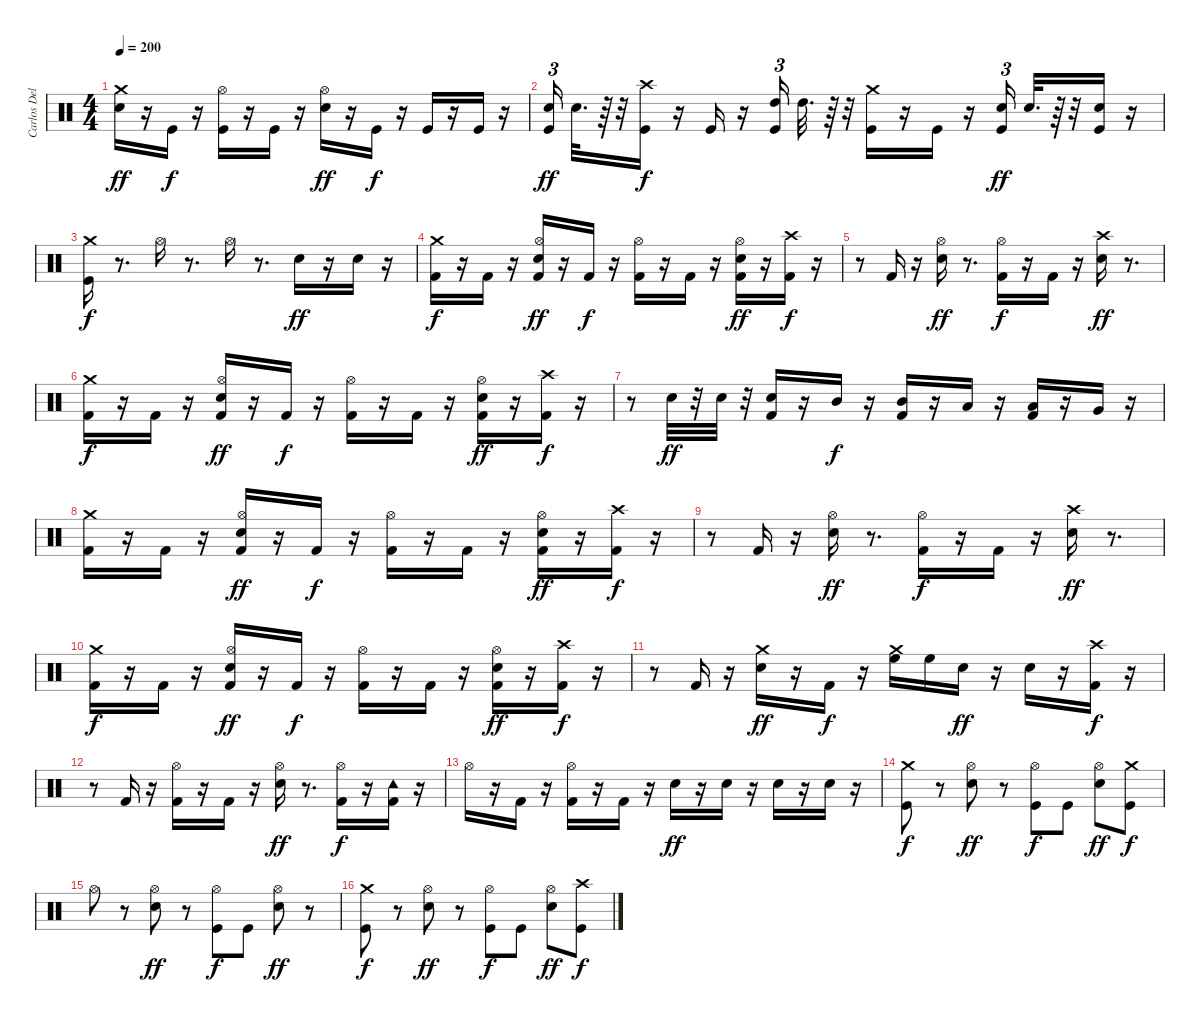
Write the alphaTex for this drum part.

\track ("Carlos Delgado" "Carlos Del") {instrument percussion}
\staff {score}
\articulation defaults
\ts (4 4)
\tempo 200
\clef neutral
\ks c
("Electric Snare (hit)" "Crash medium (hit)").16{dy ff} r.16 "Kick (hit)".16{dy f} r.16 ("Kick (hit)" "Hi-Hat (open)").16 r.16 "Kick (hit)".16 r.16 ("Hi-Hat (open)" "Electric Snare (hit)").16{dy ff} r.16 "Kick (hit)".16{dy f} r.16 "Kick (hit)".16 r.16 "Kick (hit)".16 r.16 |
("Electric Snare (hit)" "Kick (hit)").16{tu (3 2) dy ff} "Electric Snare (hit)".32{d} r.64 r.32 ("Kick (hit)" "Crash high (hit)").16{dy f} r.16 "Kick (hit)".16 r.16 ("Kick (hit)" "High Tom (hit)").16{tu (3 2)} "High Tom (hit)".32{d} r.64 r.32 ("Crash medium (hit)" "Kick (hit)").16 r.16 "Kick (hit)".16 r.16 ("Electric Snare (hit)" "Kick (hit)").16{tu (3 2) dy ff} "Electric Snare (hit)".32{d} r.64 r.32 ("Kick (hit)" "Electric Snare (hit)").16 r.16 |
("Kick (hit)" "Crash medium (hit)").16{dy f} r.8{d} "Hi-Hat (open)".16 r.8{d} "Hi-Hat (open)".16 r.8{d} "Electric Snare (hit)".16{dy ff} r.16 "Electric Snare (hit)".16 r.16 |
("Crash medium (hit)" "Kick (hit) 2").16{dy f} r.16 "Kick (hit) 2".16 r.16 ("Electric Snare (hit)" "Kick (hit) 2" "Hi-Hat (open)").16{dy ff} r.16 "Kick (hit) 2".16{dy f} r.16 ("Kick (hit) 2" "Hi-Hat (open)").16 r.16 "Kick (hit) 2".16 r.16 ("Kick (hit) 2" "Hi-Hat (open)" "Electric Snare (hit)").16{dy ff} r.16 ("Crash high (hit)" "Kick (hit) 2").16{dy f} r.16 |
r.8 "Kick (hit) 2".16 r.16 ("Electric Snare (hit)" "Hi-Hat (open)").16{dy ff} r.8{d} ("Kick (hit) 2" "Hi-Hat (open)").16{dy f} r.16 "Kick (hit) 2".16 r.16 ("Electric Snare (hit)" "Crash high (hit)").16{dy ff} r.8{d} |
("Kick (hit) 2" "Crash medium (hit)").16{dy f} r.16 "Kick (hit) 2".16 r.16 ("Kick (hit) 2" "Hi-Hat (open)" "Electric Snare (hit)").16{dy ff} r.16 "Kick (hit) 2".16{dy f} r.16 ("Kick (hit) 2" "Hi-Hat (open)").16 r.16 "Kick (hit) 2".16 r.16 ("Hi-Hat (open)" "Electric Snare (hit)" "Kick (hit) 2").16{dy ff} r.16 ("Kick (hit) 2" "Crash high (hit)").16{dy f} r.16 |
r.8 "Electric Snare (hit)".32{dy ff} r.32 "Electric Snare (hit)".32 r.32 ("Electric Snare (hit)" "Kick (hit) 2").16 r.16 "Mid Tom (hit)".16{dy f} r.16 ("Kick (hit) 2" "Mid Tom (hit)").16 r.16 "Low Tom (hit)".16 r.16 ("Kick (hit) 2" "Low Tom (hit)").16 r.16 "Very Low Tom (hit)".16 r.16 |
("Crash medium (hit)" "Kick (hit) 2").16 r.16 "Kick (hit) 2".16 r.16 ("Hi-Hat (open)" "Kick (hit) 2" "Electric Snare (hit)").16{dy ff} r.16 "Kick (hit) 2".16{dy f} r.16 ("Kick (hit) 2" "Hi-Hat (open)").16 r.16 "Kick (hit) 2".16 r.16 ("Electric Snare (hit)" "Kick (hit) 2" "Hi-Hat (open)").16{dy ff} r.16 ("Crash high (hit)" "Kick (hit) 2").16{dy f} r.16 |
r.8 "Kick (hit) 2".16 r.16 ("Electric Snare (hit)" "Hi-Hat (open)").16{dy ff} r.8{d} ("Hi-Hat (open)" "Kick (hit) 2").16{dy f} r.16 "Kick (hit) 2".16 r.16 ("Crash high (hit)" "Electric Snare (hit)").16{dy ff} r.8{d} |
("Crash medium (hit)" "Kick (hit) 2").16{dy f} r.16 "Kick (hit) 2".16 r.16 ("Kick (hit) 2" "Electric Snare (hit)" "Hi-Hat (open)").16{dy ff} r.16 "Kick (hit) 2".16{dy f} r.16 ("Hi-Hat (open)" "Kick (hit) 2").16 r.16 "Kick (hit) 2".16 r.16 ("Kick (hit) 2" "Hi-Hat (open)" "Electric Snare (hit)").16{dy ff} r.16 ("Crash high (hit)" "Kick (hit) 2").16{dy f} r.16 |
r.8 "Kick (hit) 2".16 r.16 ("Electric Snare (hit)" "Crash medium (hit)").16{dy ff} r.16 "Kick (hit) 2".16{dy f} r.16 ("Crash medium (hit)" "High Floor Tom (hit)").16 "High Floor Tom (hit)".16 "Electric Snare (hit)".16{dy ff} r.16 "Electric Snare (hit)".16 r.16 ("Kick (hit) 2" "Crash high (hit)").16{dy f} r.16 |
r.8 "Kick (hit) 2".16 r.16 ("Hi-Hat (open)" "Kick (hit) 2").16 r.16 "Kick (hit) 2".16 r.16 ("Electric Snare (hit)" "Hi-Hat (open)").16{dy ff} r.8{d} ("Hi-Hat (open)" "Kick (hit) 2").16{dy f} r.16 ("Tambourine (hit)" "Kick (hit) 2").16 r.16 |
"Hi-Hat (open)".16 r.16 "Kick (hit) 2".16 r.16 ("Hi-Hat (open)" "Kick (hit) 2").16 r.16 "Kick (hit) 2".16 r.16 "Electric Snare (hit)".16{dy ff} r.16 "Electric Snare (hit)".16 r.16 "Electric Snare (hit)".16 r.16 "Electric Snare (hit)".16 r.16 |
("Kick (hit)" "Crash medium (hit)").8{dy f} r.8 ("Hi-Hat (open)" "Electric Snare (hit)").8{dy ff} r.8 ("Kick (hit)" "Hi-Hat (open)").8{dy f} "Kick (hit)".8 ("Hi-Hat (open)" "Electric Snare (hit)").8{dy ff} ("Kick (hit)" "Crash medium (hit)").8{dy f} |
"Hi-Hat (open)".8 r.8 ("Electric Snare (hit)" "Hi-Hat (open)").8{dy ff} r.8 ("Hi-Hat (open)" "Kick (hit)").8{dy f} "Kick (hit)".8 ("Electric Snare (hit)" "Hi-Hat (open)").8{dy ff} r.8 |
("Crash medium (hit)" "Kick (hit)").8{dy f} r.8 ("Hi-Hat (open)" "Electric Snare (hit)").8{dy ff} r.8 ("Kick (hit)" "Hi-Hat (open)").8{dy f} "Kick (hit)".8 ("Hi-Hat (open)" "Electric Snare (hit)").8{dy ff} ("Crash high (hit)" "Kick (hit)").8{dy f}
